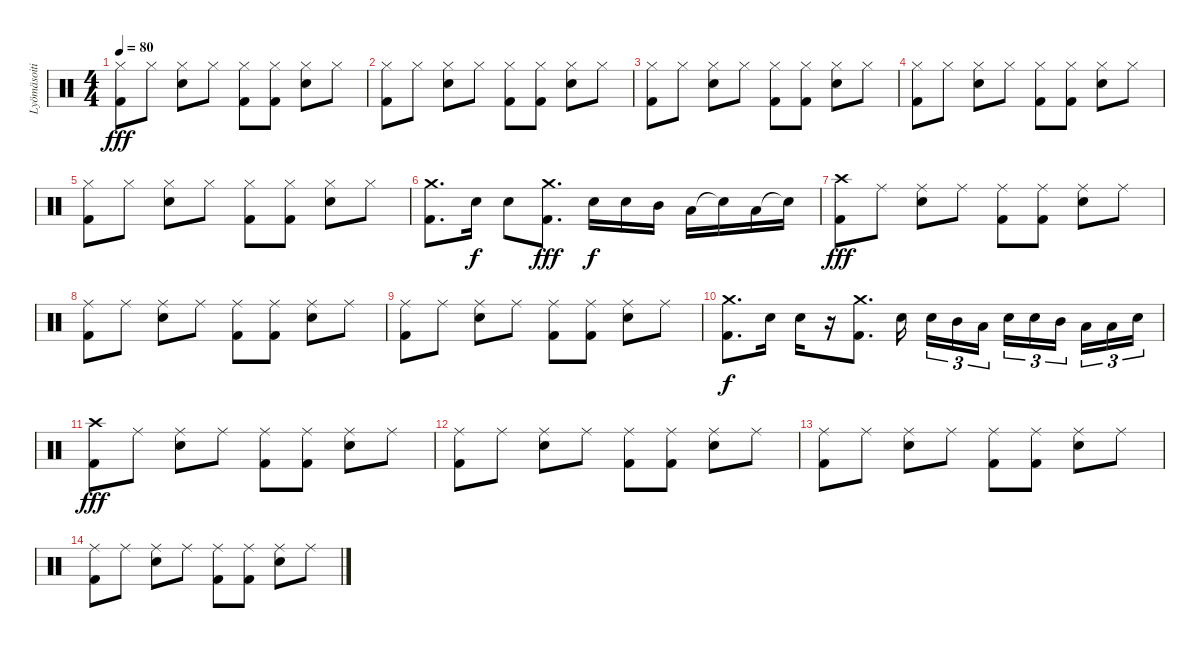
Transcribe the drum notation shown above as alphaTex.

\track ("Lyömäsoitin" "Lyömäsoiti") {instrument percussion}
\staff {score}
\articulation defaults
\ts (4 4)
\tempo 80
\clef neutral
\ks c
("Hi-Hat (closed)" "Kick (hit) 2").8{dy fff} "Hi-Hat (closed)".8 ("Hi-Hat (closed)" "Electric Snare (hit)").8 "Hi-Hat (closed)".8 ("Hi-Hat (closed)" "Kick (hit) 2").8 ("Hi-Hat (closed)" "Kick (hit) 2").8 ("Hi-Hat (closed)" "Electric Snare (hit)").8 "Hi-Hat (closed)".8 |
("Hi-Hat (closed)" "Kick (hit) 2").8 "Hi-Hat (closed)".8 ("Hi-Hat (closed)" "Electric Snare (hit)").8 "Hi-Hat (closed)".8 ("Hi-Hat (closed)" "Kick (hit) 2").8 ("Hi-Hat (closed)" "Kick (hit) 2").8 ("Hi-Hat (closed)" "Electric Snare (hit)").8 "Hi-Hat (closed)".8 |
("Hi-Hat (closed)" "Kick (hit) 2").8 "Hi-Hat (closed)".8 ("Hi-Hat (closed)" "Electric Snare (hit)").8 "Hi-Hat (closed)".8 ("Hi-Hat (closed)" "Kick (hit) 2").8 ("Hi-Hat (closed)" "Kick (hit) 2").8 ("Hi-Hat (closed)" "Electric Snare (hit)").8 "Hi-Hat (closed)".8 |
("Hi-Hat (closed)" "Kick (hit) 2").8 "Hi-Hat (closed)".8 ("Hi-Hat (closed)" "Electric Snare (hit)").8 "Hi-Hat (closed)".8 ("Hi-Hat (closed)" "Kick (hit) 2").8 ("Hi-Hat (closed)" "Kick (hit) 2").8 ("Hi-Hat (closed)" "Electric Snare (hit)").8 "Hi-Hat (closed)".8 |
("Hi-Hat (closed)" "Kick (hit) 2").8 "Hi-Hat (closed)".8 ("Hi-Hat (closed)" "Electric Snare (hit)").8 "Hi-Hat (closed)".8 ("Hi-Hat (closed)" "Kick (hit) 2").8 ("Hi-Hat (closed)" "Kick (hit) 2").8 ("Hi-Hat (closed)" "Electric Snare (hit)").8 "Hi-Hat (closed)".8 |
("Crash medium (hit)" "Kick (hit) 2").8{d} "Electric Snare (hit)".16{dy f} "Electric Snare (hit)".8 ("Crash medium (hit)" "Kick (hit) 2").8{d dy fff} "Electric Snare (hit)".16{dy f} "Electric Snare (hit)".16 "Mid Tom (hit)".16 "Low Tom (hit)".16 "Snare (hit) 2"{t}.16 "Low Tom (hit)".16 "Snare (hit) 2"{t}.16 |
("Crash high (hit)" "Kick (hit) 2").8{dy fff} "Ride (middle)".8 ("Ride (middle)" "Electric Snare (hit)").8 "Ride (middle)".8 ("Ride (middle)" "Kick (hit) 2").8 ("Ride (middle)" "Kick (hit) 2").8 ("Ride (middle)" "Electric Snare (hit)").8 "Ride (middle)".8 |
("Ride (middle)" "Kick (hit) 2").8 "Ride (middle)".8 ("Ride (middle)" "Electric Snare (hit)").8 "Ride (middle)".8 ("Ride (middle)" "Kick (hit) 2").8 ("Ride (middle)" "Kick (hit) 2").8 ("Ride (middle)" "Electric Snare (hit)").8 "Ride (middle)".8 |
("Ride (middle)" "Kick (hit) 2").8 "Ride (middle)".8 ("Ride (middle)" "Electric Snare (hit)").8 "Ride (middle)".8 ("Ride (middle)" "Kick (hit) 2").8 ("Ride (middle)" "Kick (hit) 2").8 ("Ride (middle)" "Electric Snare (hit)").8 "Ride (middle)".8 |
("Crash medium (hit)" "Kick (hit) 2").8{d dy f} "Electric Snare (hit)".16 "Electric Snare (hit)".16 r.16 ("Crash medium (hit)" "Kick (hit) 2").8{d} "Electric Snare (hit)".16{beam splitsecondary} "Electric Snare (hit)".16{tu (3 2)} "Mid Tom (hit)".16{tu (3 2)} "Low Tom (hit)".16{tu (3 2)} "Electric Snare (hit)".16{tu (3 2)} "Electric Snare (hit)".16{tu (3 2)} "Mid Tom (hit)".16{tu (3 2) beam splitsecondary} "Low Tom (hit)".16{tu (3 2)} "Low Floor Tom (hit)".16{tu (3 2)} "Electric Snare (hit)".16{tu (3 2)} |
("Crash high (hit)" "Kick (hit) 2").8{dy fff} "Ride (middle)".8 ("Ride (middle)" "Electric Snare (hit)").8 "Ride (middle)".8 ("Ride (middle)" "Kick (hit) 2").8 ("Ride (middle)" "Kick (hit) 2").8 ("Ride (middle)" "Electric Snare (hit)").8 "Ride (middle)".8 |
("Ride (middle)" "Kick (hit) 2").8 "Ride (middle)".8 ("Ride (middle)" "Electric Snare (hit)").8 "Ride (middle)".8 ("Ride (middle)" "Kick (hit) 2").8 ("Ride (middle)" "Kick (hit) 2").8 ("Ride (middle)" "Electric Snare (hit)").8 "Ride (middle)".8 |
("Ride (middle)" "Kick (hit) 2").8{volume 0} "Ride (middle)".8 ("Ride (middle)" "Electric Snare (hit)").8 "Ride (middle)".8 ("Ride (middle)" "Kick (hit) 2").8 ("Ride (middle)" "Kick (hit) 2").8 ("Ride (middle)" "Electric Snare (hit)").8 "Ride (middle)".8 |
("Ride (middle)" "Kick (hit) 2").8 "Ride (middle)".8 ("Ride (middle)" "Electric Snare (hit)").8 "Ride (middle)".8 ("Ride (middle)" "Kick (hit) 2").8 ("Ride (middle)" "Kick (hit) 2").8 ("Ride (middle)" "Electric Snare (hit)").8 "Ride (middle)".8
